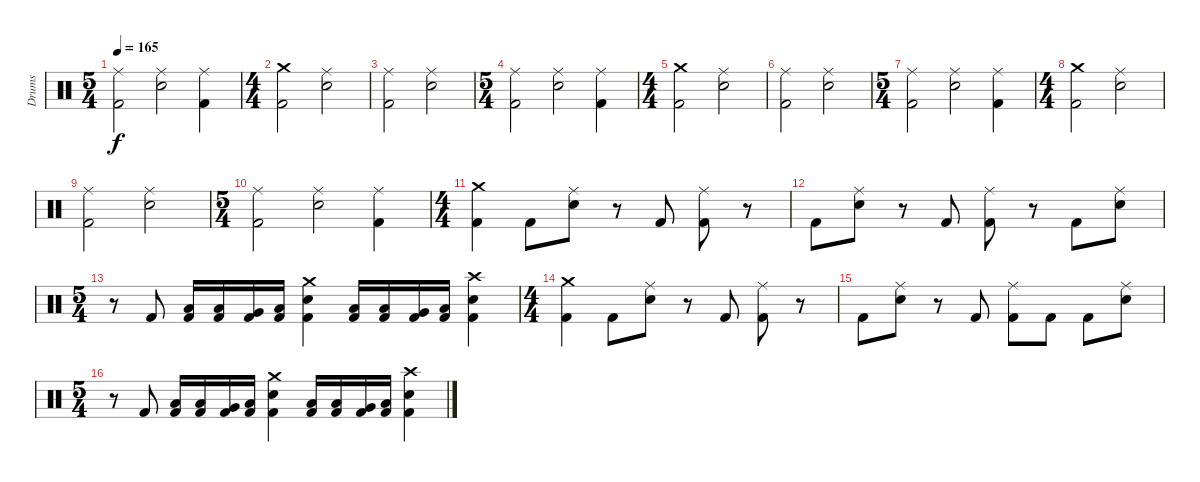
\track ("Drums" "Drums") {instrument percussion}
\staff {score}
\articulation defaults
\ts (5 4)
\tempo 165
\clef neutral
\ks c
("Ride (middle)" "Kick (hit) 2").2{dy f} ("Ride (middle)" "Electric Snare (hit)").2 ("Ride (middle)" "Kick (hit) 2").4 |
\ts (4 4)
("Crash medium (hit)" "Kick (hit) 2").2 ("Ride (middle)" "Electric Snare (hit)").2 |
("Ride (middle)" "Kick (hit) 2").2 ("Ride (middle)" "Electric Snare (hit)").2 |
\ts (5 4)
("Ride (middle)" "Kick (hit) 2").2 ("Ride (middle)" "Electric Snare (hit)").2 ("Ride (middle)" "Kick (hit) 2").4 |
\ts (4 4)
\section ("" "")
("Crash medium (hit)" "Kick (hit) 2").2 ("Ride (middle)" "Electric Snare (hit)").2 |
("Ride (middle)" "Kick (hit) 2").2 ("Ride (middle)" "Electric Snare (hit)").2 |
\ts (5 4)
("Ride (middle)" "Kick (hit) 2").2 ("Ride (middle)" "Electric Snare (hit)").2 ("Ride (middle)" "Kick (hit) 2").4 |
\ts (4 4)
("Crash medium (hit)" "Kick (hit) 2").2 ("Ride (middle)" "Electric Snare (hit)").2 |
("Ride (middle)" "Kick (hit) 2").2 ("Ride (middle)" "Electric Snare (hit)").2 |
\ts (5 4)
("Ride (middle)" "Kick (hit) 2").2 ("Ride (middle)" "Electric Snare (hit)").2 ("Ride (middle)" "Kick (hit) 2").4 |
\ts (4 4)
\section ("" "")
("Crash medium (hit)" "Kick (hit) 2").4 "Kick (hit) 2".8 ("Ride (middle)" "Electric Snare (hit)").8 r.8 "Kick (hit) 2".8 ("Ride (middle)" "Kick (hit) 2").8 r.8 |
"Kick (hit) 2".8 ("Ride (middle)" "Electric Snare (hit)").8 r.8 "Kick (hit) 2".8 ("Ride (middle)" "Kick (hit) 2").8 r.8 "Kick (hit) 2".8 ("Ride (middle)" "Electric Snare (hit)").8 |
\ts (5 4)
r.8 "Kick (hit) 2".8 ("Low Tom (hit)" "Kick (hit) 2").16 ("Low Tom (hit)" "Kick (hit) 2").16 ("Very Low Tom (hit)" "Kick (hit) 2").16 ("Low Floor Tom (hit)" "Kick (hit) 2").16 ("Crash medium (hit)" "Electric Snare (hit)" "Kick (hit) 2").4 ("Low Tom (hit)" "Kick (hit) 2").16 ("Low Tom (hit)" "Kick (hit) 2").16 ("Very Low Tom (hit)" "Kick (hit) 2").16 ("Low Floor Tom (hit)" "Kick (hit) 2").16 ("Crash high (hit)" "Electric Snare (hit)" "Kick (hit) 2").4 |
\ts (4 4)
("Crash medium (hit)" "Kick (hit) 2").4 "Kick (hit) 2".8 ("Ride (middle)" "Electric Snare (hit)").8 r.8 "Kick (hit) 2".8 ("Ride (middle)" "Kick (hit) 2").8 r.8 |
"Kick (hit) 2".8 ("Ride (middle)" "Electric Snare (hit)").8 r.8 "Kick (hit) 2".8 ("Ride (middle)" "Kick (hit) 2").8 "Kick (hit) 2".8 "Kick (hit) 2".8 ("Ride (middle)" "Electric Snare (hit)").8 |
\ts (5 4)
r.8 "Kick (hit) 2".8 ("Low Tom (hit)" "Kick (hit) 2").16 ("Low Tom (hit)" "Kick (hit) 2").16 ("Very Low Tom (hit)" "Kick (hit) 2").16 ("Low Floor Tom (hit)" "Kick (hit) 2").16 ("Crash medium (hit)" "Electric Snare (hit)" "Kick (hit) 2").4 ("Low Tom (hit)" "Kick (hit) 2").16 ("Low Tom (hit)" "Kick (hit) 2").16 ("Very Low Tom (hit)" "Kick (hit) 2").16 ("Low Floor Tom (hit)" "Kick (hit) 2").16 ("Crash high (hit)" "Electric Snare (hit)" "Kick (hit) 2").4
